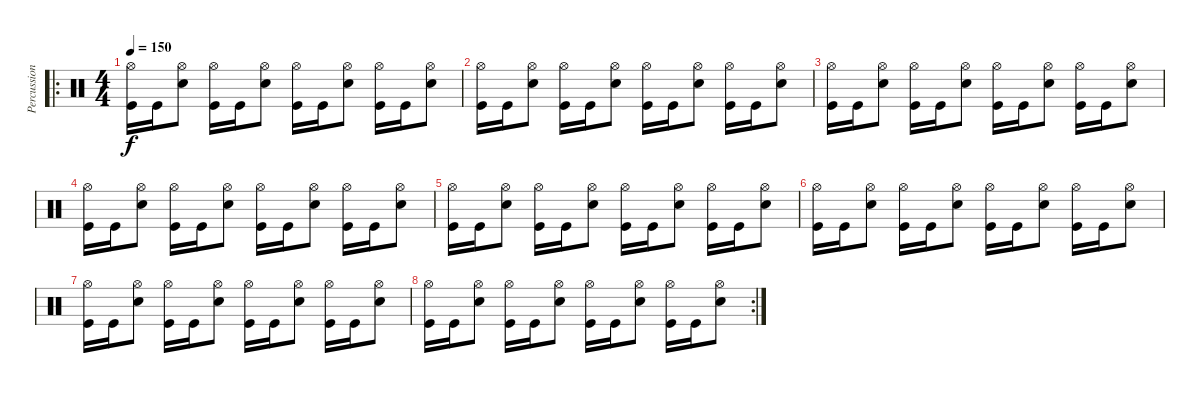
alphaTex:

\track ("Percussion" "Percussion") {instrument percussion}
\staff {score}
\articulation defaults
\ro
\ts (4 4)
\tempo 150
\clef neutral
\ks c
("Hi-Hat (open)" "Kick (hit)").16{dy f} "Kick (hit)".16 ("Hi-Hat (open)" "Snare (hit) 2").8 ("Hi-Hat (open)" "Kick (hit)").16 "Kick (hit)".16 ("Hi-Hat (open)" "Snare (hit) 2").8 ("Hi-Hat (open)" "Kick (hit)").16 "Kick (hit)".16 ("Hi-Hat (open)" "Snare (hit) 2").8 ("Hi-Hat (open)" "Kick (hit)").16 "Kick (hit)".16 ("Hi-Hat (open)" "Snare (hit) 2").8 |
("Hi-Hat (open)" "Kick (hit)").16 "Kick (hit)".16 ("Hi-Hat (open)" "Snare (hit) 2").8 ("Hi-Hat (open)" "Kick (hit)").16 "Kick (hit)".16 ("Hi-Hat (open)" "Snare (hit) 2").8 ("Hi-Hat (open)" "Kick (hit)").16 "Kick (hit)".16 ("Hi-Hat (open)" "Snare (hit) 2").8 ("Hi-Hat (open)" "Kick (hit)").16 "Kick (hit)".16 ("Hi-Hat (open)" "Snare (hit) 2").8 |
("Hi-Hat (open)" "Kick (hit)").16 "Kick (hit)".16 ("Hi-Hat (open)" "Snare (hit) 2").8 ("Hi-Hat (open)" "Kick (hit)").16 "Kick (hit)".16 ("Hi-Hat (open)" "Snare (hit) 2").8 ("Hi-Hat (open)" "Kick (hit)").16 "Kick (hit)".16 ("Hi-Hat (open)" "Snare (hit) 2").8 ("Hi-Hat (open)" "Kick (hit)").16 "Kick (hit)".16 ("Hi-Hat (open)" "Snare (hit) 2").8 |
("Hi-Hat (open)" "Kick (hit)").16 "Kick (hit)".16 ("Hi-Hat (open)" "Snare (hit) 2").8 ("Hi-Hat (open)" "Kick (hit)").16 "Kick (hit)".16 ("Hi-Hat (open)" "Snare (hit) 2").8 ("Hi-Hat (open)" "Kick (hit)").16 "Kick (hit)".16 ("Hi-Hat (open)" "Snare (hit) 2").8 ("Hi-Hat (open)" "Kick (hit)").16 "Kick (hit)".16 ("Hi-Hat (open)" "Snare (hit) 2").8 |
("Hi-Hat (open)" "Kick (hit)").16 "Kick (hit)".16 ("Hi-Hat (open)" "Snare (hit) 2").8 ("Hi-Hat (open)" "Kick (hit)").16 "Kick (hit)".16 ("Hi-Hat (open)" "Snare (hit) 2").8 ("Hi-Hat (open)" "Kick (hit)").16 "Kick (hit)".16 ("Hi-Hat (open)" "Snare (hit) 2").8 ("Hi-Hat (open)" "Kick (hit)").16 "Kick (hit)".16 ("Hi-Hat (open)" "Snare (hit) 2").8 |
("Hi-Hat (open)" "Kick (hit)").16 "Kick (hit)".16 ("Hi-Hat (open)" "Snare (hit) 2").8 ("Hi-Hat (open)" "Kick (hit)").16 "Kick (hit)".16 ("Hi-Hat (open)" "Snare (hit) 2").8 ("Hi-Hat (open)" "Kick (hit)").16 "Kick (hit)".16 ("Hi-Hat (open)" "Snare (hit) 2").8 ("Hi-Hat (open)" "Kick (hit)").16 "Kick (hit)".16 ("Hi-Hat (open)" "Snare (hit) 2").8 |
("Hi-Hat (open)" "Kick (hit)").16 "Kick (hit)".16 ("Hi-Hat (open)" "Snare (hit) 2").8 ("Hi-Hat (open)" "Kick (hit)").16 "Kick (hit)".16 ("Hi-Hat (open)" "Snare (hit) 2").8 ("Hi-Hat (open)" "Kick (hit)").16 "Kick (hit)".16 ("Hi-Hat (open)" "Snare (hit) 2").8 ("Hi-Hat (open)" "Kick (hit)").16 "Kick (hit)".16 ("Hi-Hat (open)" "Snare (hit) 2").8 |
\rc 2
("Hi-Hat (open)" "Kick (hit)").16 "Kick (hit)".16 ("Hi-Hat (open)" "Snare (hit) 2").8 ("Hi-Hat (open)" "Kick (hit)").16 "Kick (hit)".16 ("Hi-Hat (open)" "Snare (hit) 2").8 ("Hi-Hat (open)" "Kick (hit)").16 "Kick (hit)".16 ("Hi-Hat (open)" "Snare (hit) 2").8 ("Hi-Hat (open)" "Kick (hit)").16 "Kick (hit)".16 ("Hi-Hat (open)" "Snare (hit) 2").8
